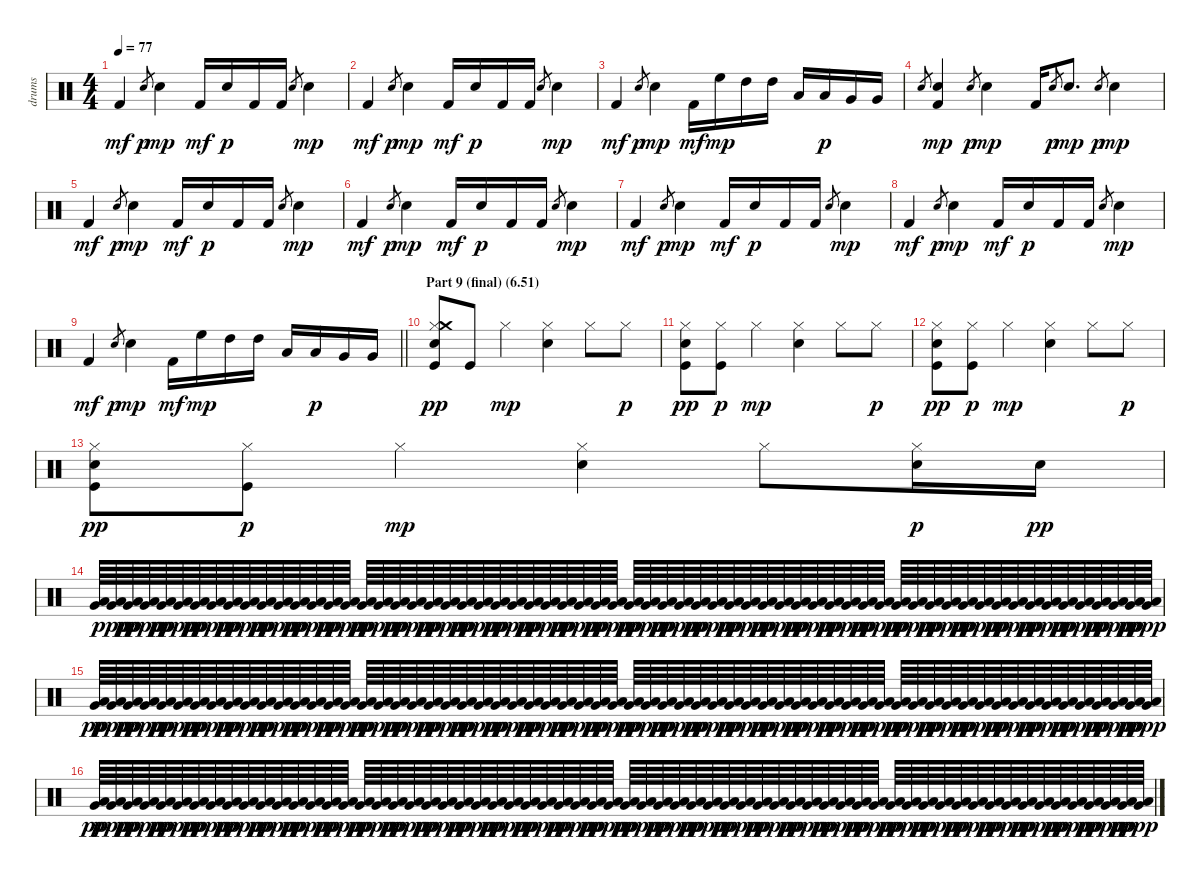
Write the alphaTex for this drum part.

\track ("drums" "drums") {instrument percussion}
\staff {score}
\articulation defaults
\ts (4 4)
\tempo 77
\clef neutral
\ks c "Kick (hit) 2".4{dy mf} "Snare (hit) 2".8{gr dy p} "Snare (hit) 2".4{dy mp} "Kick (hit) 2".16{dy mf} "Snare (hit) 2".16{dy p} "Kick (hit) 2".16 "Kick (hit) 2".16 "Snare (hit) 2".8{gr} "Snare (hit) 2".4{dy mp}
|
"Kick (hit) 2".4{dy mf} "Snare (hit) 2".8{gr dy p} "Snare (hit) 2".4{dy mp} "Kick (hit) 2".16{dy mf} "Snare (hit) 2".16{dy p} "Kick (hit) 2".16 "Kick (hit) 2".16 "Snare (hit) 2".8{gr} "Snare (hit) 2".4{dy mp} |
"Kick (hit) 2".4{dy mf} "Snare (hit) 2".8{gr dy p} "Snare (hit) 2".4{dy mp} "Kick (hit) 2".16{dy mf} "High Floor Tom (hit)".16{dy mp} "High Tom (hit)".16 "High Tom (hit)".16 "Low Tom (hit)".16 "Low Tom (hit)".16{dy p} "Very Low Tom (hit)".16 "Very Low Tom (hit)".16 |
"Snare (hit) 2".8{gr} ("Snare (hit) 2" "Kick (hit) 2").4{dy mp} "Snare (hit) 2".8{gr dy p} "Snare (hit) 2".4{dy mp} "Kick (hit) 2".16 "Snare (hit) 2".8{gr dy p} "Snare (hit) 2".8{d dy mp} "Snare (hit) 2".8{gr dy p} "Snare (hit) 2".4{dy mp} |
"Kick (hit) 2".4{dy mf} "Snare (hit) 2".8{gr dy p} "Snare (hit) 2".4{dy mp} "Kick (hit) 2".16{dy mf} "Snare (hit) 2".16{dy p} "Kick (hit) 2".16 "Kick (hit) 2".16 "Snare (hit) 2".8{gr} "Snare (hit) 2".4{dy mp} |
"Kick (hit) 2".4{dy mf} "Snare (hit) 2".8{gr dy p} "Snare (hit) 2".4{dy mp} "Kick (hit) 2".16{dy mf} "Snare (hit) 2".16{dy p} "Kick (hit) 2".16 "Kick (hit) 2".16 "Snare (hit) 2".8{gr} "Snare (hit) 2".4{dy mp} |
"Kick (hit) 2".4{dy mf} "Snare (hit) 2".8{gr dy p} "Snare (hit) 2".4{dy mp} "Kick (hit) 2".16{dy mf} "Snare (hit) 2".16{dy p} "Kick (hit) 2".16 "Kick (hit) 2".16 "Snare (hit) 2".8{gr} "Snare (hit) 2".4{dy mp} |
"Kick (hit) 2".4{dy mf} "Snare (hit) 2".8{gr dy p} "Snare (hit) 2".4{dy mp} "Kick (hit) 2".16{dy mf} "Snare (hit) 2".16{dy p} "Kick (hit) 2".16 "Kick (hit) 2".16 "Snare (hit) 2".8{gr} "Snare (hit) 2".4{dy mp} |
\barLineRight lightlight "Kick (hit) 2".4{dy mf} "Snare (hit) 2".8{gr dy p} "Snare (hit) 2".4{dy mp} "Kick (hit) 2".16{dy mf} "High Floor Tom (hit)".16{dy mp} "High Tom (hit)".16 "High Tom (hit)".16 "Low Tom (hit)".16 "Low Tom (hit)".16{dy p} "Very Low Tom (hit)".16 "Very Low Tom (hit)".16
|
\section ("" "Part 9 (final) (6.51)")
("Hi-Hat (closed)" "Crash medium (hit)" "Kick (hit)" "Snare (hit) 2").8{dy pp} "Kick (hit)".8 "Hi-Hat (closed)".4{dy mp} ("Snare (hit) 2" "Hi-Hat (closed)").4 "Hi-Hat (closed)".8 "Hi-Hat (closed)".8{dy p} |
("Hi-Hat (closed)" "Kick (hit)" "Snare (hit) 2").8{dy pp} ("Kick (hit)" "Hi-Hat (closed)").8{dy p} "Hi-Hat (closed)".4{dy mp} ("Snare (hit) 2" "Hi-Hat (closed)").4 "Hi-Hat (closed)".8 "Hi-Hat (closed)".8{dy p} |
("Hi-Hat (closed)" "Kick (hit)" "Snare (hit) 2").8{dy pp} ("Kick (hit)" "Hi-Hat (closed)").8{dy p} "Hi-Hat (closed)".4{dy mp} ("Snare (hit) 2" "Hi-Hat (closed)").4 "Hi-Hat (closed)".8 "Hi-Hat (closed)".8{dy p} |
("Snare (hit) 2" "Hi-Hat (closed)" "Kick (hit)").8{dy pp} ("Kick (hit)" "Hi-Hat (closed)").8{dy p} "Hi-Hat (closed)".4{dy mp} ("Snare (hit) 2" "Hi-Hat (closed)").4 "Hi-Hat (closed)".8 ("Snare (hit) 2" "Hi-Hat (closed)").16{dy p} "Snare (hit) 2".16{dy pp} |
("Low Floor Tom (hit)" "Very Low Tom (hit)").64 ("Low Floor Tom (hit)" "Very Low Tom (hit)").64{dy ppp} ("Low Floor Tom (hit)" "Very Low Tom (hit)").64{dy pp} ("Low Floor Tom (hit)" "Very Low Tom (hit)").64{dy ppp} ("Low Floor Tom (hit)" "Very Low Tom (hit)").64{dy pp} ("Low Floor Tom (hit)" "Very Low Tom (hit)").64{dy ppp} ("Low Floor Tom (hit)" "Very Low Tom (hit)").64{dy pp} ("Low Floor Tom (hit)" "Very Low Tom (hit)").64{dy ppp} ("Low Floor Tom (hit)" "Very Low Tom (hit)").64{dy pp} ("Low Floor Tom (hit)" "Very Low Tom (hit)").64{dy ppp} ("Low Floor Tom (hit)" "Very Low Tom (hit)").64{dy pp} ("Low Floor Tom (hit)" "Very Low Tom (hit)").64{dy ppp} ("Low Floor Tom (hit)" "Very Low Tom (hit)").64{dy pp} ("Low Floor Tom (hit)" "Very Low Tom (hit)").64{dy ppp} ("Low Floor Tom (hit)" "Very Low Tom (hit)").64{dy pp} ("Low Floor Tom (hit)" "Very Low Tom (hit)").64{dy ppp} ("Low Floor Tom (hit)" "Very Low Tom (hit)").64{dy pp} ("Low Floor Tom (hit)" "Very Low Tom (hit)").64{dy ppp} ("Low Floor Tom (hit)" "Very Low Tom (hit)").64{dy pp} ("Low Floor Tom (hit)" "Very Low Tom (hit)").64{dy ppp} ("Low Floor Tom (hit)" "Very Low Tom (hit)").64{dy pp} ("Low Floor Tom (hit)" "Very Low Tom (hit)").64{dy ppp} ("Low Floor Tom (hit)" "Very Low Tom (hit)").64{dy pp} ("Low Floor Tom (hit)" "Very Low Tom (hit)").64{dy ppp} ("Low Floor Tom (hit)" "Very Low Tom (hit)").64{dy pp} ("Low Floor Tom (hit)" "Very Low Tom (hit)").64{dy ppp} ("Low Floor Tom (hit)" "Very Low Tom (hit)").64{dy pp} ("Low Floor Tom (hit)" "Very Low Tom (hit)").64{dy ppp} ("Low Floor Tom (hit)" "Very Low Tom (hit)").64{dy pp} ("Low Floor Tom (hit)" "Very Low Tom (hit)").64{dy ppp} ("Low Floor Tom (hit)" "Very Low Tom (hit)").64{dy pp} ("Low Floor Tom (hit)" "Very Low Tom (hit)").64{dy ppp} ("Low Floor Tom (hit)" "Very Low Tom (hit)").64{dy pp} ("Low Floor Tom (hit)" "Very Low Tom (hit)").64{dy ppp} ("Low Floor Tom (hit)" "Very Low Tom (hit)").64{dy pp} ("Low Floor Tom (hit)" "Very Low Tom (hit)").64{dy ppp} ("Low Floor Tom (hit)" "Very Low Tom (hit)").64{dy pp} ("Low Floor Tom (hit)" "Very Low Tom (hit)").64{dy ppp} ("Low Floor Tom (hit)" "Very Low Tom (hit)").64{dy pp} ("Low Floor Tom (hit)" "Very Low Tom (hit)").64{dy ppp} ("Low Floor Tom (hit)" "Very Low Tom (hit)").64{dy pp} ("Low Floor Tom (hit)" "Very Low Tom (hit)").64{dy ppp} ("Low Floor Tom (hit)" "Very Low Tom (hit)").64{dy pp} ("Low Floor Tom (hit)" "Very Low Tom (hit)").64{dy ppp} ("Low Floor Tom (hit)" "Very Low Tom (hit)").64{dy pp} ("Low Floor Tom (hit)" "Very Low Tom (hit)").64{dy ppp} ("Low Floor Tom (hit)" "Very Low Tom (hit)").64{dy pp} ("Low Floor Tom (hit)" "Very Low Tom (hit)").64{dy ppp} ("Low Floor Tom (hit)" "Very Low Tom (hit)").64{dy pp} ("Low Floor Tom (hit)" "Very Low Tom (hit)").64{dy ppp} ("Low Floor Tom (hit)" "Very Low Tom (hit)").64{dy pp} ("Low Floor Tom (hit)" "Very Low Tom (hit)").64{dy ppp} ("Low Floor Tom (hit)" "Very Low Tom (hit)").64{dy pp} ("Low Floor Tom (hit)" "Very Low Tom (hit)").64{dy ppp} ("Low Floor Tom (hit)" "Very Low Tom (hit)").64{dy pp} ("Low Floor Tom (hit)" "Very Low Tom (hit)").64{dy ppp} ("Low Floor Tom (hit)" "Very Low Tom (hit)").64{dy pp} ("Low Floor Tom (hit)" "Very Low Tom (hit)").64{dy ppp} ("Low Floor Tom (hit)" "Very Low Tom (hit)").64{dy pp} ("Low Floor Tom (hit)" "Very Low Tom (hit)").64{dy ppp} ("Low Floor Tom (hit)" "Very Low Tom (hit)").64{dy pp} ("Low Floor Tom (hit)" "Very Low Tom (hit)").64{dy ppp} ("Low Floor Tom (hit)" "Very Low Tom (hit)").64{dy pp} ("Low Floor Tom (hit)" "Very Low Tom (hit)").64{dy ppp} |
("Low Floor Tom (hit)" "Very Low Tom (hit)").64{dy pp} ("Low Floor Tom (hit)" "Very Low Tom (hit)").64{dy ppp} ("Low Floor Tom (hit)" "Very Low Tom (hit)").64{dy pp} ("Low Floor Tom (hit)" "Very Low Tom (hit)").64{dy ppp} ("Low Floor Tom (hit)" "Very Low Tom (hit)").64{dy pp} ("Low Floor Tom (hit)" "Very Low Tom (hit)").64{dy ppp} ("Low Floor Tom (hit)" "Very Low Tom (hit)").64{dy pp} ("Low Floor Tom (hit)" "Very Low Tom (hit)").64{dy ppp} ("Low Floor Tom (hit)" "Very Low Tom (hit)").64{dy pp} ("Low Floor Tom (hit)" "Very Low Tom (hit)").64{dy ppp} ("Low Floor Tom (hit)" "Very Low Tom (hit)").64{dy pp} ("Low Floor Tom (hit)" "Very Low Tom (hit)").64{dy ppp} ("Low Floor Tom (hit)" "Very Low Tom (hit)").64{dy pp} ("Low Floor Tom (hit)" "Very Low Tom (hit)").64{dy ppp} ("Low Floor Tom (hit)" "Very Low Tom (hit)").64{dy pp} ("Low Floor Tom (hit)" "Very Low Tom (hit)").64{dy ppp} ("Low Floor Tom (hit)" "Very Low Tom (hit)").64{dy pp} ("Low Floor Tom (hit)" "Very Low Tom (hit)").64{dy ppp} ("Low Floor Tom (hit)" "Very Low Tom (hit)").64{dy pp} ("Low Floor Tom (hit)" "Very Low Tom (hit)").64{dy ppp} ("Low Floor Tom (hit)" "Very Low Tom (hit)").64{dy pp} ("Low Floor Tom (hit)" "Very Low Tom (hit)").64{dy ppp} ("Low Floor Tom (hit)" "Very Low Tom (hit)").64{dy pp} ("Low Floor Tom (hit)" "Very Low Tom (hit)").64{dy ppp} ("Low Floor Tom (hit)" "Very Low Tom (hit)").64{dy pp} ("Low Floor Tom (hit)" "Very Low Tom (hit)").64{dy ppp} ("Low Floor Tom (hit)" "Very Low Tom (hit)").64{dy pp} ("Low Floor Tom (hit)" "Very Low Tom (hit)").64{dy ppp} ("Low Floor Tom (hit)" "Very Low Tom (hit)").64{dy pp} ("Low Floor Tom (hit)" "Very Low Tom (hit)").64{dy ppp} ("Low Floor Tom (hit)" "Very Low Tom (hit)").64{dy pp} ("Low Floor Tom (hit)" "Very Low Tom (hit)").64{dy ppp} ("Low Floor Tom (hit)" "Very Low Tom (hit)").64{dy pp} ("Low Floor Tom (hit)" "Very Low Tom (hit)").64{dy ppp} ("Low Floor Tom (hit)" "Very Low Tom (hit)").64{dy pp} ("Low Floor Tom (hit)" "Very Low Tom (hit)").64{dy ppp} ("Low Floor Tom (hit)" "Very Low Tom (hit)").64{dy pp} ("Low Floor Tom (hit)" "Very Low Tom (hit)").64{dy ppp} ("Low Floor Tom (hit)" "Very Low Tom (hit)").64{dy pp} ("Low Floor Tom (hit)" "Very Low Tom (hit)").64{dy ppp} ("Low Floor Tom (hit)" "Very Low Tom (hit)").64{dy pp} ("Low Floor Tom (hit)" "Very Low Tom (hit)").64{dy ppp} ("Low Floor Tom (hit)" "Very Low Tom (hit)").64{dy pp} ("Low Floor Tom (hit)" "Very Low Tom (hit)").64{dy ppp} ("Low Floor Tom (hit)" "Very Low Tom (hit)").64{dy pp} ("Low Floor Tom (hit)" "Very Low Tom (hit)").64{dy ppp} ("Low Floor Tom (hit)" "Very Low Tom (hit)").64{dy pp} ("Low Floor Tom (hit)" "Very Low Tom (hit)").64{dy ppp} ("Low Floor Tom (hit)" "Very Low Tom (hit)").64{dy pp} ("Low Floor Tom (hit)" "Very Low Tom (hit)").64{dy ppp} ("Low Floor Tom (hit)" "Very Low Tom (hit)").64{dy pp} ("Low Floor Tom (hit)" "Very Low Tom (hit)").64{dy ppp} ("Low Floor Tom (hit)" "Very Low Tom (hit)").64{dy pp} ("Low Floor Tom (hit)" "Very Low Tom (hit)").64{dy ppp} ("Low Floor Tom (hit)" "Very Low Tom (hit)").64{dy pp} ("Low Floor Tom (hit)" "Very Low Tom (hit)").64{dy ppp} ("Low Floor Tom (hit)" "Very Low Tom (hit)").64{dy pp} ("Low Floor Tom (hit)" "Very Low Tom (hit)").64{dy ppp} ("Low Floor Tom (hit)" "Very Low Tom (hit)").64{dy pp} ("Low Floor Tom (hit)" "Very Low Tom (hit)").64{dy ppp} ("Low Floor Tom (hit)" "Very Low Tom (hit)").64{dy pp} ("Low Floor Tom (hit)" "Very Low Tom (hit)").64{dy ppp} ("Low Floor Tom (hit)" "Very Low Tom (hit)").64{dy pp} ("Low Floor Tom (hit)" "Very Low Tom (hit)").64{dy ppp} |
("Low Floor Tom (hit)" "Very Low Tom (hit)").64{dy pp} ("Low Floor Tom (hit)" "Very Low Tom (hit)").64{dy ppp} ("Low Floor Tom (hit)" "Very Low Tom (hit)").64{dy pp} ("Low Floor Tom (hit)" "Very Low Tom (hit)").64{dy ppp} ("Low Floor Tom (hit)" "Very Low Tom (hit)").64{dy pp} ("Low Floor Tom (hit)" "Very Low Tom (hit)").64{dy ppp} ("Low Floor Tom (hit)" "Very Low Tom (hit)").64{dy pp} ("Low Floor Tom (hit)" "Very Low Tom (hit)").64{dy ppp} ("Low Floor Tom (hit)" "Very Low Tom (hit)").64{dy pp} ("Low Floor Tom (hit)" "Very Low Tom (hit)").64{dy ppp} ("Low Floor Tom (hit)" "Very Low Tom (hit)").64{dy pp} ("Low Floor Tom (hit)" "Very Low Tom (hit)").64{dy ppp} ("Low Floor Tom (hit)" "Very Low Tom (hit)").64{dy pp} ("Low Floor Tom (hit)" "Very Low Tom (hit)").64{dy ppp} ("Low Floor Tom (hit)" "Very Low Tom (hit)").64{dy pp} ("Low Floor Tom (hit)" "Very Low Tom (hit)").64{dy ppp} ("Low Floor Tom (hit)" "Very Low Tom (hit)").64{dy pp} ("Low Floor Tom (hit)" "Very Low Tom (hit)").64{dy ppp} ("Low Floor Tom (hit)" "Very Low Tom (hit)").64{dy pp} ("Low Floor Tom (hit)" "Very Low Tom (hit)").64{dy ppp} ("Low Floor Tom (hit)" "Very Low Tom (hit)").64{dy pp} ("Low Floor Tom (hit)" "Very Low Tom (hit)").64{dy ppp} ("Low Floor Tom (hit)" "Very Low Tom (hit)").64{dy pp} ("Low Floor Tom (hit)" "Very Low Tom (hit)").64{dy ppp} ("Low Floor Tom (hit)" "Very Low Tom (hit)").64{dy pp} ("Low Floor Tom (hit)" "Very Low Tom (hit)").64{dy ppp} ("Low Floor Tom (hit)" "Very Low Tom (hit)").64{dy pp} ("Low Floor Tom (hit)" "Very Low Tom (hit)").64{dy ppp} ("Low Floor Tom (hit)" "Very Low Tom (hit)").64{dy pp} ("Low Floor Tom (hit)" "Very Low Tom (hit)").64{dy ppp} ("Low Floor Tom (hit)" "Very Low Tom (hit)").64{dy pp} ("Low Floor Tom (hit)" "Very Low Tom (hit)").64{dy ppp} ("Low Floor Tom (hit)" "Very Low Tom (hit)").64{dy pp} ("Low Floor Tom (hit)" "Very Low Tom (hit)").64{dy ppp} ("Low Floor Tom (hit)" "Very Low Tom (hit)").64{dy pp} ("Low Floor Tom (hit)" "Very Low Tom (hit)").64{dy ppp} ("Low Floor Tom (hit)" "Very Low Tom (hit)").64{dy pp} ("Low Floor Tom (hit)" "Very Low Tom (hit)").64{dy ppp} ("Low Floor Tom (hit)" "Very Low Tom (hit)").64{dy pp} ("Low Floor Tom (hit)" "Very Low Tom (hit)").64{dy ppp} ("Low Floor Tom (hit)" "Very Low Tom (hit)").64{dy pp} ("Low Floor Tom (hit)" "Very Low Tom (hit)").64{dy ppp} ("Low Floor Tom (hit)" "Very Low Tom (hit)").64{dy pp} ("Low Floor Tom (hit)" "Very Low Tom (hit)").64{dy ppp} ("Low Floor Tom (hit)" "Very Low Tom (hit)").64{dy pp} ("Low Floor Tom (hit)" "Very Low Tom (hit)").64{dy ppp} ("Low Floor Tom (hit)" "Very Low Tom (hit)").64{dy pp} ("Low Floor Tom (hit)" "Very Low Tom (hit)").64{dy ppp} ("Low Floor Tom (hit)" "Very Low Tom (hit)").64{dy pp} ("Low Floor Tom (hit)" "Very Low Tom (hit)").64{dy ppp} ("Low Floor Tom (hit)" "Very Low Tom (hit)").64{dy pp} ("Low Floor Tom (hit)" "Very Low Tom (hit)").64{dy ppp} ("Low Floor Tom (hit)" "Very Low Tom (hit)").64{dy pp} ("Low Floor Tom (hit)" "Very Low Tom (hit)").64{dy ppp} ("Low Floor Tom (hit)" "Very Low Tom (hit)").64{dy pp} ("Low Floor Tom (hit)" "Very Low Tom (hit)").64{dy ppp} ("Low Floor Tom (hit)" "Very Low Tom (hit)").64{dy pp} ("Low Floor Tom (hit)" "Very Low Tom (hit)").64{dy ppp} ("Low Floor Tom (hit)" "Very Low Tom (hit)").64{dy pp} ("Low Floor Tom (hit)" "Very Low Tom (hit)").64{dy ppp} ("Low Floor Tom (hit)" "Very Low Tom (hit)").64{dy pp} ("Low Floor Tom (hit)" "Very Low Tom (hit)").64{dy ppp} ("Low Floor Tom (hit)" "Very Low Tom (hit)").64{dy pp} ("Low Floor Tom (hit)" "Very Low Tom (hit)").64{dy ppp}
